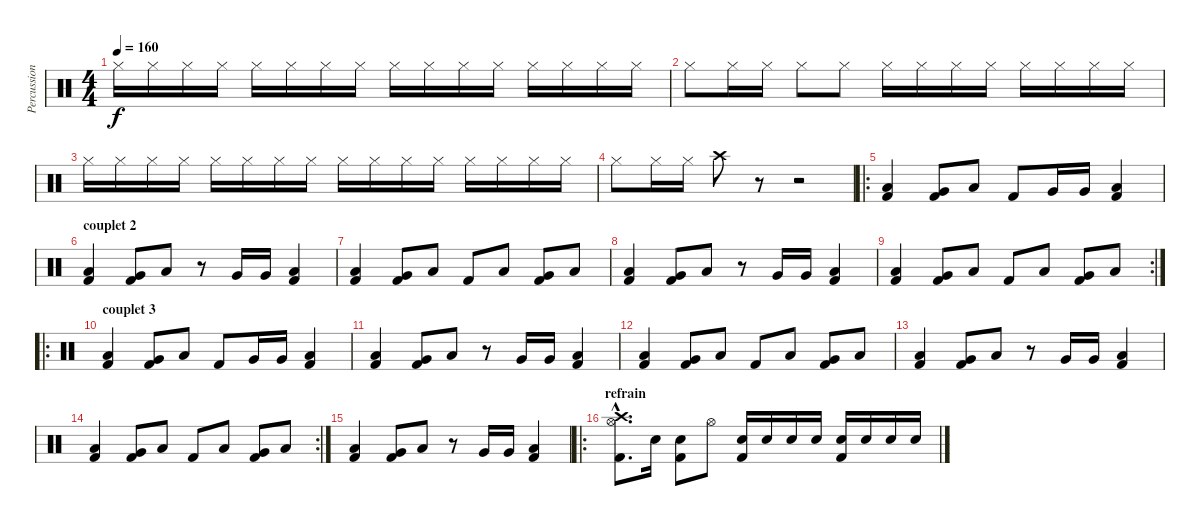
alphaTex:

\track ("Percussions" "Percussion") {instrument percussion}
\staff {score}
\articulation defaults
\ts (4 4)
\tempo 160
\clef neutral
\ks c "Hi-Hat (closed)".16{dy f volume 11} "Hi-Hat (closed)".16 "Hi-Hat (closed)".16 "Hi-Hat (closed)".16 "Hi-Hat (closed)".16 "Hi-Hat (closed)".16 "Hi-Hat (closed)".16 "Hi-Hat (closed)".16 "Hi-Hat (closed)".16 "Hi-Hat (closed)".16 "Hi-Hat (closed)".16 "Hi-Hat (closed)".16 "Hi-Hat (closed)".16 "Hi-Hat (closed)".16 "Hi-Hat (closed)".16 "Hi-Hat (closed)".16
|
"Hi-Hat (closed)".8{volume 13} "Hi-Hat (closed)".16 "Hi-Hat (closed)".16 "Hi-Hat (closed)".8 "Hi-Hat (closed)".8 "Hi-Hat (closed)".16 "Hi-Hat (closed)".16 "Hi-Hat (closed)".16 "Hi-Hat (closed)".16 "Hi-Hat (closed)".16 "Hi-Hat (closed)".16 "Hi-Hat (closed)".16 "Hi-Hat (closed)".16 |
"Hi-Hat (closed)".16{volume 14} "Hi-Hat (closed)".16 "Hi-Hat (closed)".16 "Hi-Hat (closed)".16 "Hi-Hat (closed)".16 "Hi-Hat (closed)".16 "Hi-Hat (closed)".16 "Hi-Hat (closed)".16 "Hi-Hat (closed)".16 "Hi-Hat (closed)".16 "Hi-Hat (closed)".16 "Hi-Hat (closed)".16 "Hi-Hat (closed)".16 "Hi-Hat (closed)".16 "Hi-Hat (closed)".16 "Hi-Hat (closed)".16 |
"Hi-Hat (closed)".8{volume 16} "Hi-Hat (closed)".16 "Hi-Hat (closed)".16 "Crash high (hit)".8 r.8 r.2 |
\ro
("Kick (hit) 2" "Low Floor Tom (hit)").4{volume 15} ("Kick (hit) 2" "Very Low Tom (hit)").8 "Low Floor Tom (hit)".8 "Kick (hit) 2".8 "Very Low Tom (hit)".16 "Very Low Tom (hit)".16 ("Kick (hit) 2" "Low Floor Tom (hit)").4 |
\section ("" "couplet 2")
("Kick (hit) 2" "Low Floor Tom (hit)").4 ("Kick (hit) 2" "Very Low Tom (hit)").8 "Low Floor Tom (hit)".8 r.8 "Very Low Tom (hit)".16 "Very Low Tom (hit)".16 ("Kick (hit) 2" "Low Floor Tom (hit)").4 |
("Kick (hit) 2" "Low Floor Tom (hit)").4 ("Kick (hit) 2" "Very Low Tom (hit)").8 "Low Floor Tom (hit)".8 "Kick (hit) 2".8 "Low Floor Tom (hit)".8 ("Kick (hit) 2" "Very Low Tom (hit)").8 "Low Tom (hit)".8 |
("Kick (hit) 2" "Low Floor Tom (hit)").4 ("Kick (hit) 2" "Very Low Tom (hit)").8 "Low Floor Tom (hit)".8 r.8 "Very Low Tom (hit)".16 "Very Low Tom (hit)".16 ("Kick (hit) 2" "Low Floor Tom (hit)").4 |
\rc 2
("Kick (hit) 2" "Low Floor Tom (hit)").4 ("Kick (hit) 2" "Very Low Tom (hit)").8 "Low Floor Tom (hit)".8 "Kick (hit) 2".8 "Low Floor Tom (hit)".8 ("Kick (hit) 2" "Very Low Tom (hit)").8 "Low Tom (hit)".8 |
\ro
\section ("" "couplet 3")
("Kick (hit) 2" "Low Floor Tom (hit)").4{volume 12} ("Kick (hit) 2" "Very Low Tom (hit)").8 "Low Floor Tom (hit)".8 "Kick (hit) 2".8 "Very Low Tom (hit)".16 "Very Low Tom (hit)".16 ("Kick (hit) 2" "Low Floor Tom (hit)").4 |
("Kick (hit) 2" "Low Floor Tom (hit)").4 ("Kick (hit) 2" "Very Low Tom (hit)").8 "Low Floor Tom (hit)".8 r.8 "Very Low Tom (hit)".16 "Very Low Tom (hit)".16 ("Kick (hit) 2" "Low Floor Tom (hit)").4 |
("Kick (hit) 2" "Low Floor Tom (hit)").4 ("Kick (hit) 2" "Very Low Tom (hit)").8 "Low Floor Tom (hit)".8 "Kick (hit) 2".8 "Low Floor Tom (hit)".8 ("Kick (hit) 2" "Very Low Tom (hit)").8 "Low Tom (hit)".8 |
("Kick (hit) 2" "Low Floor Tom (hit)").4 ("Kick (hit) 2" "Very Low Tom (hit)").8 "Low Floor Tom (hit)".8 r.8 "Very Low Tom (hit)".16 "Very Low Tom (hit)".16 ("Kick (hit) 2" "Low Floor Tom (hit)").4 |
\rc 2
("Kick (hit) 2" "Low Floor Tom (hit)").4 ("Kick (hit) 2" "Very Low Tom (hit)").8 "Low Floor Tom (hit)".8 "Kick (hit) 2".8 "Low Floor Tom (hit)".8 ("Kick (hit) 2" "Very Low Tom (hit)").8 "Low Tom (hit)".8 |
("Kick (hit) 2" "Low Floor Tom (hit)").4 ("Kick (hit) 2" "Very Low Tom (hit)").8 "Low Floor Tom (hit)".8 r.8 "Very Low Tom (hit)".16 "Very Low Tom (hit)".16 ("Kick (hit) 2" "Low Floor Tom (hit)").4 |
\ro
\section ("" "refrain")
("Kick (hit) 2"{hac} "Hi-Hat (open)"{hac} "Crash high (hit)"{hac}).8{d} "Electric Snare (hit)".16 ("Kick (hit) 2" "Electric Snare (hit)").8 "Hi-Hat (open)".8 ("Kick (hit) 2" "Electric Snare (hit)").16 "Electric Snare (hit)".16 "Electric Snare (hit)".16 "Electric Snare (hit)".16 ("Kick (hit) 2" "Electric Snare (hit)").16 "Electric Snare (hit)".16 "Electric Snare (hit)".16 "Electric Snare (hit)".16
